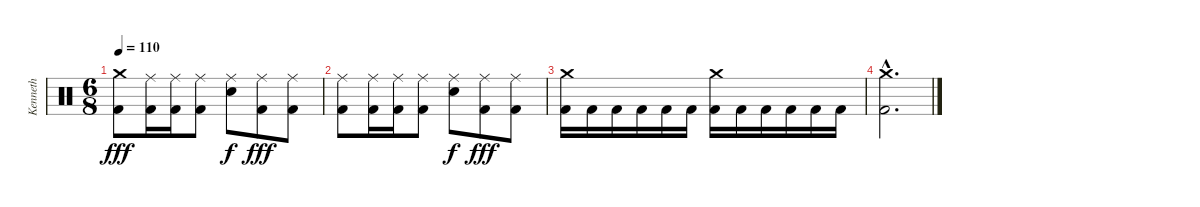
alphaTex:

\track ("Kenneth" "Kenneth") {instrument percussion}
\staff {score}
\articulation defaults
\ts (6 8)
\tempo 110
\clef neutral
\ks c
("Crash medium (hit)" "Kick (hit) 2").8{dy fff} ("Ride (middle)" "Kick (hit) 2").16 ("Ride (middle)" "Kick (hit) 2").16 ("Ride (middle)" "Kick (hit) 2").8 ("Ride (middle)" "Snare (hit) 2").8{dy f} ("Ride (middle)" "Kick (hit) 2").8{dy fff} ("Ride (middle)" "Kick (hit) 2").8 |
("Ride (middle)" "Kick (hit) 2").8 ("Ride (middle)" "Kick (hit) 2").16 ("Ride (middle)" "Kick (hit) 2").16 ("Ride (middle)" "Kick (hit) 2").8 ("Ride (middle)" "Snare (hit) 2").8{dy f} ("Ride (middle)" "Kick (hit) 2").8{dy fff} ("Ride (middle)" "Kick (hit) 2").8 |
("Crash medium (hit)" "Kick (hit) 2").16 "Kick (hit) 2".16 "Kick (hit) 2".16 "Kick (hit) 2".16 "Kick (hit) 2".16 "Kick (hit) 2".16 ("Crash medium (hit)" "Kick (hit) 2").16 "Kick (hit) 2".16 "Kick (hit) 2".16 "Kick (hit) 2".16 "Kick (hit) 2".16 "Kick (hit) 2".16 |
("Crash medium (hit)"{hac} "Kick (hit) 2"{hac}).2{d}
